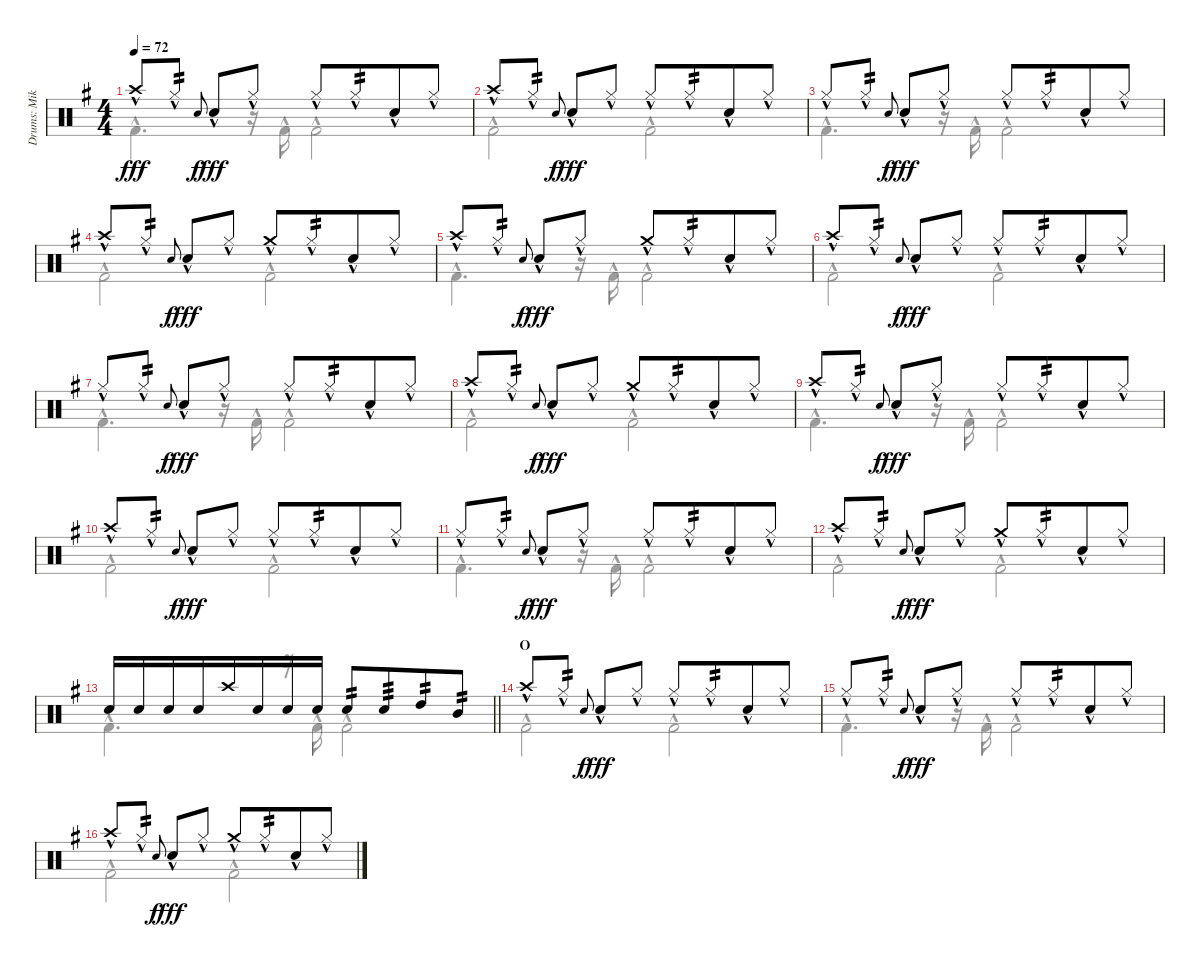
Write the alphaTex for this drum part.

\track ("Drums: Mike" "Drums: Mik") {instrument percussion}
\staff {score}
\articulation defaults
\voice
\ts (4 4)
\tempo 72
\clef neutral
\ks g "Crash high (hit)"{hac}.8{dy fff} "Hi-Hat (closed)"{hac}.8{tp 2} "Electric Snare (hit)".8{gr onbeat dy f beam merge} "Snare (hit) 2"{hac}.8{dy fff} "Hi-Hat (closed)"{hac}.8 "Hi-Hat (closed)"{hac}.8 "Hi-Hat (closed)"{hac}.8{tp 2 beam merge} "Snare (hit) 2"{hac}.8 "Hi-Hat (closed)"{hac}.8
|
"Crash high (hit)"{hac}.8 "Hi-Hat (closed)"{hac}.8{tp 2} "Electric Snare (hit)".8{gr onbeat dy f beam merge} "Snare (hit) 2"{hac}.8{dy fff} "Hi-Hat (closed)"{hac}.8 "Hi-Hat (closed)"{hac}.8 "Hi-Hat (closed)"{hac}.8{tp 2 beam merge} "Snare (hit) 2"{hac}.8 "Hi-Hat (closed)"{hac}.8 |
"Hi-Hat (closed)"{hac}.8 "Hi-Hat (closed)"{hac}.8{tp 2} "Electric Snare (hit)".8{gr onbeat dy f beam merge} "Snare (hit) 2"{hac}.8{dy fff} "Hi-Hat (closed)"{hac}.8 "Hi-Hat (closed)"{hac}.8 "Hi-Hat (closed)"{hac}.8{tp 2 beam merge} "Snare (hit) 2"{hac}.8 "Hi-Hat (closed)"{hac}.8 |
"Crash high (hit)"{hac}.8 "Hi-Hat (closed)"{hac}.8{tp 2} "Electric Snare (hit)".8{gr onbeat dy f beam merge} "Snare (hit) 2"{hac}.8{dy fff} "Hi-Hat (closed)"{hac}.8 "Crash medium (hit)"{hac}.8 "Hi-Hat (closed)"{hac}.8{tp 2 beam merge} "Snare (hit) 2"{hac}.8 "Hi-Hat (closed)"{hac}.8 |
"Crash high (hit)"{hac}.8 "Hi-Hat (closed)"{hac}.8{tp 2} "Electric Snare (hit)".8{gr onbeat dy f beam merge} "Snare (hit) 2"{hac}.8{dy fff} "Hi-Hat (closed)"{hac}.8 "Crash medium (hit)"{hac}.8 "Hi-Hat (closed)"{hac}.8{tp 2 beam merge} "Snare (hit) 2"{hac}.8 "Hi-Hat (closed)"{hac}.8 |
"Crash high (hit)"{hac}.8 "Hi-Hat (closed)"{hac}.8{tp 2} "Electric Snare (hit)".8{gr onbeat dy f beam merge} "Snare (hit) 2"{hac}.8{dy fff} "Hi-Hat (closed)"{hac}.8 "Hi-Hat (closed)"{hac}.8 "Hi-Hat (closed)"{hac}.8{tp 2 beam merge} "Snare (hit) 2"{hac}.8 "Hi-Hat (closed)"{hac}.8 |
"Hi-Hat (closed)"{hac}.8 "Hi-Hat (closed)"{hac}.8{tp 2} "Electric Snare (hit)".8{gr onbeat dy f beam merge} "Snare (hit) 2"{hac}.8{dy fff} "Hi-Hat (closed)"{hac}.8 "Hi-Hat (closed)"{hac}.8 "Hi-Hat (closed)"{hac}.8{tp 2 beam merge} "Snare (hit) 2"{hac}.8 "Hi-Hat (closed)"{hac}.8 |
"Crash high (hit)"{hac}.8 "Hi-Hat (closed)"{hac}.8{tp 2} "Electric Snare (hit)".8{gr onbeat dy f beam merge} "Snare (hit) 2"{hac}.8{dy fff} "Hi-Hat (closed)"{hac}.8 "Crash medium (hit)"{hac}.8 "Hi-Hat (closed)"{hac}.8{tp 2 beam merge} "Snare (hit) 2"{hac}.8 "Hi-Hat (closed)"{hac}.8 |
"Crash high (hit)"{hac}.8 "Hi-Hat (closed)"{hac}.8{tp 2} "Electric Snare (hit)".8{gr onbeat dy f beam merge} "Snare (hit) 2"{hac}.8{dy fff} "Hi-Hat (closed)"{hac}.8 "Hi-Hat (closed)"{hac}.8 "Hi-Hat (closed)"{hac}.8{tp 2 beam merge} "Snare (hit) 2"{hac}.8 "Hi-Hat (closed)"{hac}.8 |
"Crash high (hit)"{hac}.8 "Hi-Hat (closed)"{hac}.8{tp 2} "Electric Snare (hit)".8{gr onbeat dy f beam merge} "Snare (hit) 2"{hac}.8{dy fff} "Hi-Hat (closed)"{hac}.8 "Hi-Hat (closed)"{hac}.8 "Hi-Hat (closed)"{hac}.8{tp 2 beam merge} "Snare (hit) 2"{hac}.8 "Hi-Hat (closed)"{hac}.8 |
"Hi-Hat (closed)"{hac}.8 "Hi-Hat (closed)"{hac}.8{tp 2} "Electric Snare (hit)".8{gr onbeat dy f beam merge} "Snare (hit) 2"{hac}.8{dy fff} "Hi-Hat (closed)"{hac}.8 "Hi-Hat (closed)"{hac}.8 "Hi-Hat (closed)"{hac}.8{tp 2 beam merge} "Snare (hit) 2"{hac}.8 "Hi-Hat (closed)"{hac}.8 |
"Crash high (hit)"{hac}.8 "Hi-Hat (closed)"{hac}.8{tp 2} "Electric Snare (hit)".8{gr onbeat dy f beam merge} "Snare (hit) 2"{hac}.8{dy fff} "Hi-Hat (closed)"{hac}.8 "Crash medium (hit)"{hac}.8 "Hi-Hat (closed)"{hac}.8{tp 2 beam merge} "Snare (hit) 2"{hac}.8 "Hi-Hat (closed)"{hac}.8 |
\barLineRight lightlight "Snare (hit) 2".16{beam merge} "Snare (hit) 2".16 "Snare (hit) 2".16 "Snare (hit) 2".16{beam merge} "Crash high (hit)".16 "Snare (hit) 2".16 "Snare (hit) 2".16 "Snare (hit) 2".16 "Snare (hit) 2".8{tp 2} "Snare (hit) 2".8{tp 3 beam merge} "High Tom (hit)".8{tp 2} "Mid Tom (hit)".8{tp 2}
|
\section ("" "O")
"Crash high (hit)"{hac}.8 "Hi-Hat (closed)"{hac}.8{tp 2} "Electric Snare (hit)".8{gr onbeat dy f beam merge} "Snare (hit) 2"{hac}.8{dy fff} "Hi-Hat (closed)"{hac}.8 "Hi-Hat (closed)"{hac}.8 "Hi-Hat (closed)"{hac}.8{tp 2 beam merge} "Snare (hit) 2"{hac}.8 "Hi-Hat (closed)"{hac}.8 |
"Hi-Hat (closed)"{hac}.8 "Hi-Hat (closed)"{hac}.8{tp 2} "Electric Snare (hit)".8{gr onbeat dy f beam merge} "Snare (hit) 2"{hac}.8{dy fff} "Hi-Hat (closed)"{hac}.8 "Hi-Hat (closed)"{hac}.8 "Hi-Hat (closed)"{hac}.8{tp 2 beam merge} "Snare (hit) 2"{hac}.8 "Hi-Hat (closed)"{hac}.8 |
"Crash high (hit)"{hac}.8 "Hi-Hat (closed)"{hac}.8{tp 2} "Electric Snare (hit)".8{gr onbeat dy f beam merge} "Snare (hit) 2"{hac}.8{dy fff} "Hi-Hat (closed)"{hac}.8 "Crash medium (hit)"{hac}.8 "Hi-Hat (closed)"{hac}.8{tp 2 beam merge} "Snare (hit) 2"{hac}.8 "Hi-Hat (closed)"{hac}.8
\voice
\clef neutral
\ottava regular
\simile none
\ks g "Kick (hit) 2"{hac}.4{d dy fff}
r.16 "Kick (hit) 2"{hac}.16 "Kick (hit) 2"{hac}.2 |
"Kick (hit) 2"{hac}.2 "Kick (hit) 2"{hac}.2 |
"Kick (hit) 2"{hac}.4{d} r.16 "Kick (hit) 2"{hac}.16 "Kick (hit) 2"{hac}.2 |
"Kick (hit) 2"{hac}.2 "Kick (hit) 2"{hac}.2 |
"Kick (hit) 2"{hac}.4{d} r.16 "Kick (hit) 2"{hac}.16 "Kick (hit) 2"{hac}.2 |
"Kick (hit) 2"{hac}.2 "Kick (hit) 2"{hac}.2 |
"Kick (hit) 2"{hac}.4{d} r.16 "Kick (hit) 2"{hac}.16 "Kick (hit) 2"{hac}.2 |
"Kick (hit) 2"{hac}.2 "Kick (hit) 2"{hac}.2 |
"Kick (hit) 2"{hac}.4{d} r.16 "Kick (hit) 2"{hac}.16 "Kick (hit) 2"{hac}.2 |
"Kick (hit) 2"{hac}.2 "Kick (hit) 2"{hac}.2 |
"Kick (hit) 2"{hac}.4{d} r.16 "Kick (hit) 2"{hac}.16 "Kick (hit) 2"{hac}.2 |
"Kick (hit) 2"{hac}.2 "Kick (hit) 2"{hac}.2 |
\barLineRight lightlight "Kick (hit) 2"{hac}.4{d}
r.16 "Kick (hit) 2"{hac}.16 "Kick (hit) 2"{hac}.2 |
"Kick (hit) 2"{hac}.2 "Kick (hit) 2"{hac}.2 |
"Kick (hit) 2"{hac}.4{d} r.16 "Kick (hit) 2"{hac}.16 "Kick (hit) 2"{hac}.2 |
"Kick (hit) 2"{hac}.2 "Kick (hit) 2"{hac}.2
